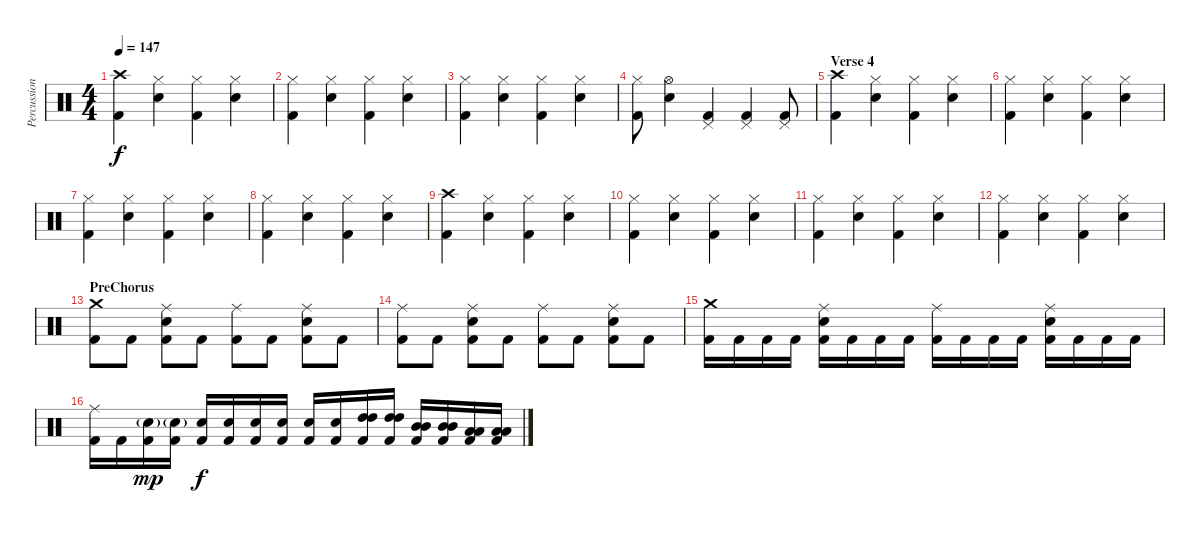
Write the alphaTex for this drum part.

\track ("Percussion" "Percussion") {instrument percussion}
\staff {score}
\articulation defaults
\ts (4 4)
\tempo 147
\clef neutral
\ks c
("Crash high (hit)" "Kick (hit) 2").4{dy f} ("Hi-Hat (closed)" "Snare (hit) 2").4 ("Hi-Hat (closed)" "Kick (hit) 2").4 ("Hi-Hat (closed)" "Snare (hit) 2").4 |
("Hi-Hat (closed)" "Kick (hit) 2").4 ("Hi-Hat (closed)" "Snare (hit) 2").4 ("Hi-Hat (closed)" "Kick (hit) 2").4 ("Hi-Hat (closed)" "Snare (hit) 2").4 |
("Hi-Hat (closed)" "Kick (hit) 2").4 ("Hi-Hat (closed)" "Snare (hit) 2").4 ("Hi-Hat (closed)" "Kick (hit) 2").4 ("Hi-Hat (closed)" "Snare (hit) 2").4 |
("Kick (hit) 2" "Hi-Hat (closed)").8 ("Snare (hit) 2" "Hi-Hat (open)").4 ("Kick (hit) 2" "Pedal Hi-Hat (hit)").4 ("Kick (hit) 2" "Pedal Hi-Hat (hit)").4 ("Kick (hit) 2" "Pedal Hi-Hat (hit)").8 |
\section ("" "Verse 4")
("Crash high (hit)" "Kick (hit) 2").4 ("Hi-Hat (closed)" "Snare (hit) 2").4 ("Hi-Hat (closed)" "Kick (hit) 2").4 ("Hi-Hat (closed)" "Snare (hit) 2").4 |
("Hi-Hat (closed)" "Kick (hit) 2").4 ("Hi-Hat (closed)" "Snare (hit) 2").4 ("Hi-Hat (closed)" "Kick (hit) 2").4 ("Hi-Hat (closed)" "Snare (hit) 2").4 |
("Hi-Hat (closed)" "Kick (hit) 2").4 ("Hi-Hat (closed)" "Snare (hit) 2").4 ("Hi-Hat (closed)" "Kick (hit) 2").4 ("Hi-Hat (closed)" "Snare (hit) 2").4 |
("Hi-Hat (closed)" "Kick (hit) 2").4 ("Hi-Hat (closed)" "Snare (hit) 2").4 ("Hi-Hat (closed)" "Kick (hit) 2").4 ("Hi-Hat (closed)" "Snare (hit) 2").4 |
("Crash high (hit)" "Kick (hit) 2").4 ("Hi-Hat (closed)" "Snare (hit) 2").4 ("Hi-Hat (closed)" "Kick (hit) 2").4 ("Hi-Hat (closed)" "Snare (hit) 2").4 |
("Hi-Hat (closed)" "Kick (hit) 2").4 ("Hi-Hat (closed)" "Snare (hit) 2").4 ("Hi-Hat (closed)" "Kick (hit) 2").4 ("Hi-Hat (closed)" "Snare (hit) 2").4 |
("Hi-Hat (closed)" "Kick (hit) 2").4 ("Hi-Hat (closed)" "Snare (hit) 2").4 ("Hi-Hat (closed)" "Kick (hit) 2").4 ("Hi-Hat (closed)" "Snare (hit) 2").4 |
("Hi-Hat (closed)" "Kick (hit) 2").4 ("Hi-Hat (closed)" "Snare (hit) 2").4 ("Hi-Hat (closed)" "Kick (hit) 2").4 ("Hi-Hat (closed)" "Snare (hit) 2").4 |
\section ("" "PreChorus")
("Crash medium (hit)" "Kick (hit) 2").8 "Kick (hit) 2".8 ("Ride (middle)" "Snare (hit) 2" "Kick (hit) 2").8 "Kick (hit) 2".8 ("Ride (middle)" "Kick (hit) 2").8 "Kick (hit) 2".8 ("Ride (middle)" "Snare (hit) 2" "Kick (hit) 2").8 "Kick (hit) 2".8 |
("Ride (middle)" "Kick (hit) 2").8 "Kick (hit) 2".8 ("Ride (middle)" "Snare (hit) 2" "Kick (hit) 2").8 "Kick (hit) 2".8 ("Ride (middle)" "Kick (hit) 2").8 "Kick (hit) 2".8 ("Ride (middle)" "Snare (hit) 2" "Kick (hit) 2").8 "Kick (hit) 2".8 |
("Kick (hit) 2" "Crash medium (hit)").16 "Kick (hit) 2".16 "Kick (hit) 2".16 "Kick (hit) 2".16 ("Kick (hit) 2" "Snare (hit) 2" "Ride (middle)").16 "Kick (hit) 2".16 "Kick (hit) 2".16 "Kick (hit) 2".16 ("Kick (hit) 2" "Ride (middle)").16 "Kick (hit) 2".16 "Kick (hit) 2".16 "Kick (hit) 2".16 ("Kick (hit) 2" "Snare (hit) 2" "Ride (middle)").16 "Kick (hit) 2".16 "Kick (hit) 2".16 "Kick (hit) 2".16 |
("Kick (hit) 2" "Ride (middle)").16 "Kick (hit) 2".16 ("Kick (hit) 2" "Snare (hit) 2"{g}).16{dy mp} ("Kick (hit) 2" "Snare (hit) 2"{g}).16 ("Kick (hit) 2" "Snare (hit) 2").16{dy f} ("Kick (hit) 2" "Snare (hit) 2").16 ("Kick (hit) 2" "Snare (hit) 2").16 ("Kick (hit) 2" "Snare (hit) 2").16 ("Kick (hit) 2" "Snare (hit) 2").16 ("Kick (hit) 2" "Snare (hit) 2").16 ("Kick (hit) 2" "High Tom (hit)" "High Tom (hit)").16 ("Kick (hit) 2" "High Tom (hit)" "High Tom (hit)").16 ("Kick (hit) 2" "Mid Tom (hit)" "Mid Tom (hit)").16 ("Kick (hit) 2" "Mid Tom (hit)" "Mid Tom (hit)").16 ("Kick (hit) 2" "Low Tom (hit)" "Low Tom (hit)").16 ("Kick (hit) 2" "Low Tom (hit)" "Low Tom (hit)").16
